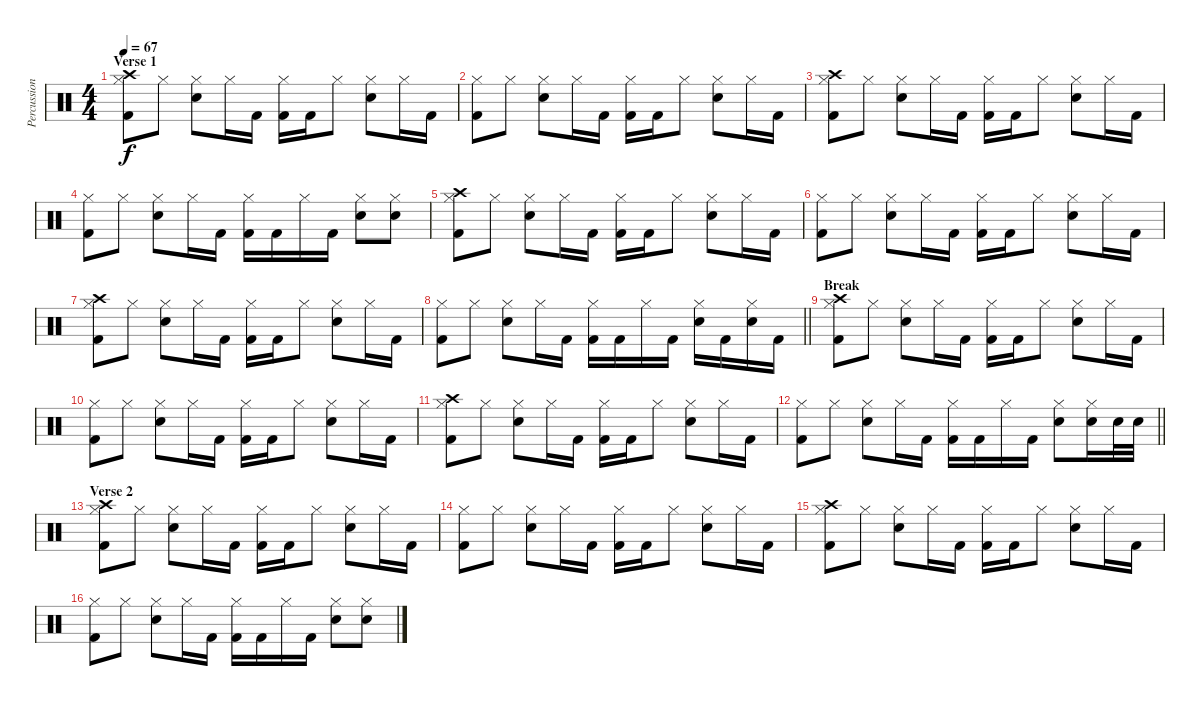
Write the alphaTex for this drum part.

\track ("Percussion" "Percussion") {instrument percussion}
\staff {score}
\articulation defaults
\ts (4 4)
\section ("" "Verse 1")
\tempo 67
\clef neutral
\ks c
("Crash high (hit)" "Hi-Hat (closed)" "Kick (hit) 2").8{dy f} "Hi-Hat (closed)".8 ("Hi-Hat (closed)" "Snare (hit) 2").8 "Hi-Hat (closed)".16 "Kick (hit) 2".16 ("Hi-Hat (closed)" "Kick (hit) 2").16 "Kick (hit) 2".16 "Hi-Hat (closed)".8 ("Hi-Hat (closed)" "Snare (hit) 2").8 "Hi-Hat (closed)".16 "Kick (hit) 2".16 |
("Hi-Hat (closed)" "Kick (hit) 2").8 "Hi-Hat (closed)".8 ("Hi-Hat (closed)" "Snare (hit) 2").8 "Hi-Hat (closed)".16 "Kick (hit) 2".16 ("Hi-Hat (closed)" "Kick (hit) 2").16 "Kick (hit) 2".16 "Hi-Hat (closed)".8 ("Hi-Hat (closed)" "Snare (hit) 2").8 "Hi-Hat (closed)".16 "Kick (hit) 2".16 |
("Crash high (hit)" "Hi-Hat (closed)" "Kick (hit) 2").8 "Hi-Hat (closed)".8 ("Hi-Hat (closed)" "Snare (hit) 2").8 "Hi-Hat (closed)".16 "Kick (hit) 2".16 ("Hi-Hat (closed)" "Kick (hit) 2").16 "Kick (hit) 2".16 "Hi-Hat (closed)".8 ("Hi-Hat (closed)" "Snare (hit) 2").8 "Hi-Hat (closed)".16 "Kick (hit) 2".16 |
("Hi-Hat (closed)" "Kick (hit) 2").8 "Hi-Hat (closed)".8 ("Hi-Hat (closed)" "Snare (hit) 2").8 "Hi-Hat (closed)".16 "Kick (hit) 2".16 ("Hi-Hat (closed)" "Kick (hit) 2").16 "Kick (hit) 2".16 "Hi-Hat (closed)".16 "Kick (hit) 2".16 ("Hi-Hat (closed)" "Snare (hit) 2").8 ("Hi-Hat (closed)" "Snare (hit) 2").8 |
("Crash high (hit)" "Hi-Hat (closed)" "Kick (hit) 2").8 "Hi-Hat (closed)".8 ("Hi-Hat (closed)" "Snare (hit) 2").8 "Hi-Hat (closed)".16 "Kick (hit) 2".16 ("Hi-Hat (closed)" "Kick (hit) 2").16 "Kick (hit) 2".16 "Hi-Hat (closed)".8 ("Hi-Hat (closed)" "Snare (hit) 2").8 "Hi-Hat (closed)".16 "Kick (hit) 2".16 |
("Hi-Hat (closed)" "Kick (hit) 2").8 "Hi-Hat (closed)".8 ("Hi-Hat (closed)" "Snare (hit) 2").8 "Hi-Hat (closed)".16 "Kick (hit) 2".16 ("Hi-Hat (closed)" "Kick (hit) 2").16 "Kick (hit) 2".16 "Hi-Hat (closed)".8 ("Hi-Hat (closed)" "Snare (hit) 2").8 "Hi-Hat (closed)".16 "Kick (hit) 2".16 |
("Crash high (hit)" "Hi-Hat (closed)" "Kick (hit) 2").8 "Hi-Hat (closed)".8 ("Hi-Hat (closed)" "Snare (hit) 2").8 "Hi-Hat (closed)".16 "Kick (hit) 2".16 ("Hi-Hat (closed)" "Kick (hit) 2").16 "Kick (hit) 2".16 "Hi-Hat (closed)".8 ("Hi-Hat (closed)" "Snare (hit) 2").8 "Hi-Hat (closed)".16 "Kick (hit) 2".16 |
\barLineRight lightlight
("Hi-Hat (closed)" "Kick (hit) 2").8 "Hi-Hat (closed)".8 ("Hi-Hat (closed)" "Snare (hit) 2").8 "Hi-Hat (closed)".16 "Kick (hit) 2".16 ("Hi-Hat (closed)" "Kick (hit) 2").16 "Kick (hit) 2".16 "Hi-Hat (closed)".16 "Kick (hit) 2".16 ("Hi-Hat (closed)" "Snare (hit) 2").16 "Kick (hit) 2".16 ("Hi-Hat (closed)" "Snare (hit) 2").16 "Kick (hit) 2".16 |
\section ("" "Break")
("Crash high (hit)" "Hi-Hat (closed)" "Kick (hit) 2").8 "Hi-Hat (closed)".8 ("Hi-Hat (closed)" "Snare (hit) 2").8 "Hi-Hat (closed)".16 "Kick (hit) 2".16 ("Hi-Hat (closed)" "Kick (hit) 2").16 "Kick (hit) 2".16 "Hi-Hat (closed)".8 ("Hi-Hat (closed)" "Snare (hit) 2").8 "Hi-Hat (closed)".16 "Kick (hit) 2".16 |
("Hi-Hat (closed)" "Kick (hit) 2").8 "Hi-Hat (closed)".8 ("Hi-Hat (closed)" "Snare (hit) 2").8 "Hi-Hat (closed)".16 "Kick (hit) 2".16 ("Hi-Hat (closed)" "Kick (hit) 2").16 "Kick (hit) 2".16 "Hi-Hat (closed)".8 ("Hi-Hat (closed)" "Snare (hit) 2").8 "Hi-Hat (closed)".16 "Kick (hit) 2".16 |
("Crash high (hit)" "Hi-Hat (closed)" "Kick (hit) 2").8 "Hi-Hat (closed)".8 ("Hi-Hat (closed)" "Snare (hit) 2").8 "Hi-Hat (closed)".16 "Kick (hit) 2".16 ("Hi-Hat (closed)" "Kick (hit) 2").16 "Kick (hit) 2".16 "Hi-Hat (closed)".8 ("Hi-Hat (closed)" "Snare (hit) 2").8 "Hi-Hat (closed)".16 "Kick (hit) 2".16 |
\barLineRight lightlight
("Hi-Hat (closed)" "Kick (hit) 2").8 "Hi-Hat (closed)".8 ("Hi-Hat (closed)" "Snare (hit) 2").8 "Hi-Hat (closed)".16 "Kick (hit) 2".16 ("Hi-Hat (closed)" "Kick (hit) 2").16 "Kick (hit) 2".16 "Hi-Hat (closed)".16 "Kick (hit) 2".16 ("Hi-Hat (closed)" "Snare (hit) 2").8 ("Hi-Hat (closed)" "Snare (hit) 2").16 "Snare (hit) 2".32 "Snare (hit) 2".32 |
\section ("" "Verse 2")
("Crash high (hit)" "Hi-Hat (closed)" "Kick (hit) 2").8 "Hi-Hat (closed)".8 ("Hi-Hat (closed)" "Snare (hit) 2").8 "Hi-Hat (closed)".16 "Kick (hit) 2".16 ("Hi-Hat (closed)" "Kick (hit) 2").16 "Kick (hit) 2".16 "Hi-Hat (closed)".8 ("Hi-Hat (closed)" "Snare (hit) 2").8 "Hi-Hat (closed)".16 "Kick (hit) 2".16 |
("Hi-Hat (closed)" "Kick (hit) 2").8 "Hi-Hat (closed)".8 ("Hi-Hat (closed)" "Snare (hit) 2").8 "Hi-Hat (closed)".16 "Kick (hit) 2".16 ("Hi-Hat (closed)" "Kick (hit) 2").16 "Kick (hit) 2".16 "Hi-Hat (closed)".8 ("Hi-Hat (closed)" "Snare (hit) 2").8 "Hi-Hat (closed)".16 "Kick (hit) 2".16 |
("Crash high (hit)" "Hi-Hat (closed)" "Kick (hit) 2").8 "Hi-Hat (closed)".8 ("Hi-Hat (closed)" "Snare (hit) 2").8 "Hi-Hat (closed)".16 "Kick (hit) 2".16 ("Hi-Hat (closed)" "Kick (hit) 2").16 "Kick (hit) 2".16 "Hi-Hat (closed)".8 ("Hi-Hat (closed)" "Snare (hit) 2").8 "Hi-Hat (closed)".16 "Kick (hit) 2".16 |
("Hi-Hat (closed)" "Kick (hit) 2").8 "Hi-Hat (closed)".8 ("Hi-Hat (closed)" "Snare (hit) 2").8 "Hi-Hat (closed)".16 "Kick (hit) 2".16 ("Hi-Hat (closed)" "Kick (hit) 2").16 "Kick (hit) 2".16 "Hi-Hat (closed)".16 "Kick (hit) 2".16 ("Hi-Hat (closed)" "Snare (hit) 2").8 ("Hi-Hat (closed)" "Snare (hit) 2").8
